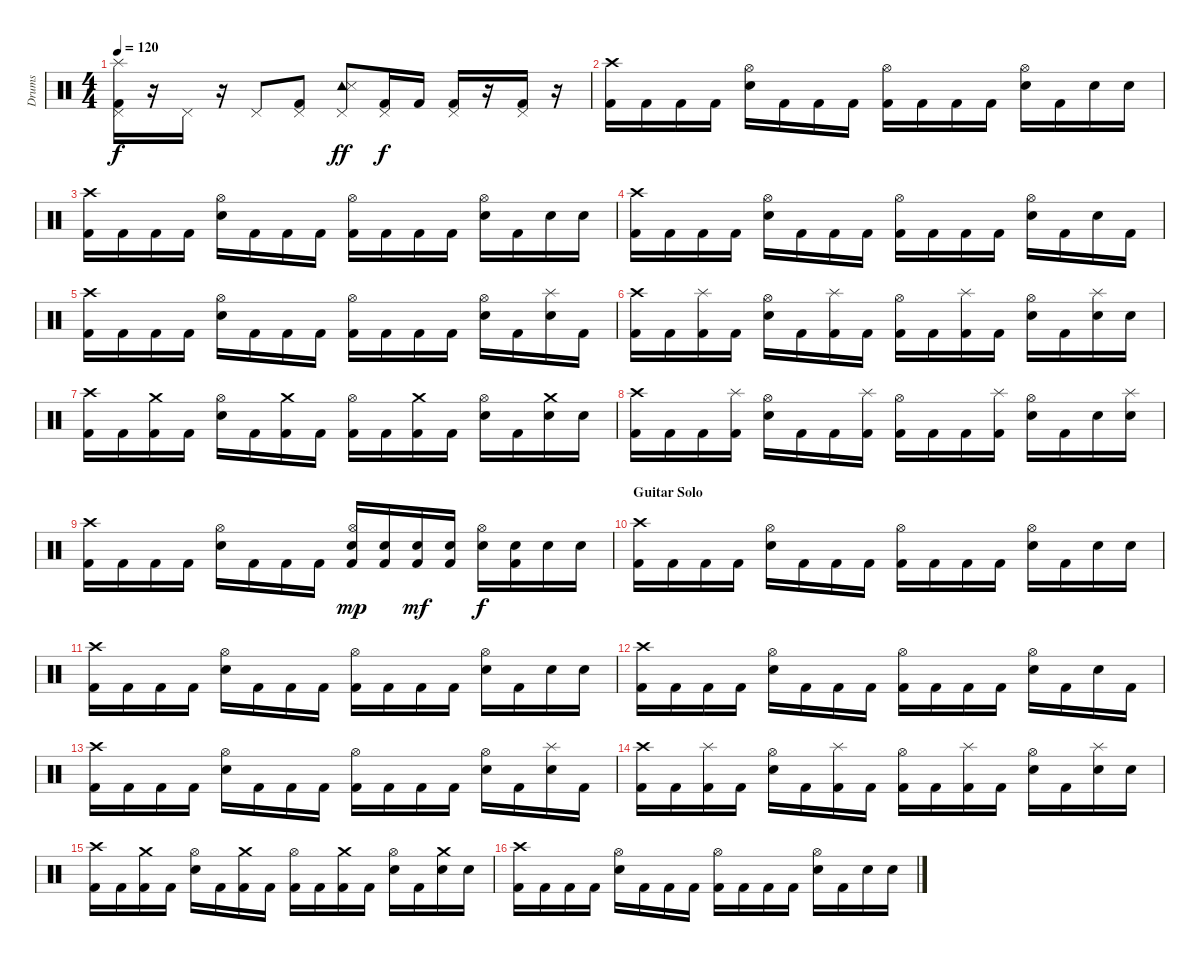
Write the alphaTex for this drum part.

\track ("Drums" "Drums") {instrument percussion}
\staff {score}
\articulation defaults
\ts (4 4)
\tempo 120
\clef neutral
\ks c
("Splash (hit)" "Pedal Hi-Hat (hit)" "Kick (hit) 2").16{dy f} r.16 "Pedal Hi-Hat (hit)".16 r.16 "Pedal Hi-Hat (hit)".8 ("Pedal Hi-Hat (hit)" "Kick (hit) 2").8 ("Pedal Hi-Hat (hit)" "Tambourine (hit)" "Snare (side stick) 3").8{dy ff} ("Pedal Hi-Hat (hit)" "Kick (hit) 2").16{dy f} "Kick (hit) 2".16 ("Pedal Hi-Hat (hit)" "Kick (hit) 2").16 r.16 ("Pedal Hi-Hat (hit)" "Kick (hit) 2").16 r.16 |
("Crash high (hit)" "Kick (hit) 2").16 "Kick (hit) 2".16 "Kick (hit) 2".16 "Kick (hit) 2".16 ("Hi-Hat (open)" "Electric Snare (hit)").16 "Kick (hit) 2".16 "Kick (hit) 2".16 "Kick (hit) 2".16 ("Hi-Hat (open)" "Kick (hit) 2").16 "Kick (hit) 2".16 "Kick (hit) 2".16 "Kick (hit) 2".16 ("Hi-Hat (open)" "Electric Snare (hit)").16 "Kick (hit) 2".16 "Electric Snare (hit)".16 "Electric Snare (hit)".16 |
("Crash high (hit)" "Kick (hit) 2").16 "Kick (hit) 2".16 "Kick (hit) 2".16 "Kick (hit) 2".16 ("Hi-Hat (open)" "Electric Snare (hit)").16 "Kick (hit) 2".16 "Kick (hit) 2".16 "Kick (hit) 2".16 ("Hi-Hat (open)" "Kick (hit) 2").16 "Kick (hit) 2".16 "Kick (hit) 2".16 "Kick (hit) 2".16 ("Hi-Hat (open)" "Electric Snare (hit)").16 "Kick (hit) 2".16 "Electric Snare (hit)".16 "Electric Snare (hit)".16 |
("Crash high (hit)" "Kick (hit) 2").16 "Kick (hit) 2".16 "Kick (hit) 2".16 "Kick (hit) 2".16 ("Hi-Hat (open)" "Electric Snare (hit)").16 "Kick (hit) 2".16 "Kick (hit) 2".16 "Kick (hit) 2".16 ("Hi-Hat (open)" "Kick (hit) 2").16 "Kick (hit) 2".16 "Kick (hit) 2".16 "Kick (hit) 2".16 ("Hi-Hat (open)" "Electric Snare (hit)").16 "Kick (hit) 2".16 "Electric Snare (hit)".16 "Kick (hit) 2".16 |
("Crash high (hit)" "Kick (hit) 2").16 "Kick (hit) 2".16 "Kick (hit) 2".16 "Kick (hit) 2".16 ("Hi-Hat (open)" "Electric Snare (hit)").16 "Kick (hit) 2".16 "Kick (hit) 2".16 "Kick (hit) 2".16 ("Hi-Hat (open)" "Kick (hit) 2").16 "Kick (hit) 2".16 "Kick (hit) 2".16 "Kick (hit) 2".16 ("Hi-Hat (open)" "Electric Snare (hit)").16 "Kick (hit) 2".16 ("Splash (hit)" "Electric Snare (hit)").16 "Kick (hit) 2".16 |
("Crash high (hit)" "Kick (hit) 2").16 "Kick (hit) 2".16 ("Splash (hit)" "Kick (hit) 2").16 "Kick (hit) 2".16 ("Hi-Hat (open)" "Electric Snare (hit)").16 "Kick (hit) 2".16 ("Splash (hit)" "Kick (hit) 2").16 "Kick (hit) 2".16 ("Hi-Hat (open)" "Kick (hit) 2").16 "Kick (hit) 2".16 ("Splash (hit)" "Kick (hit) 2").16 "Kick (hit) 2".16 ("Hi-Hat (open)" "Electric Snare (hit)").16 "Kick (hit) 2".16 ("Splash (hit)" "Electric Snare (hit)").16 "Electric Snare (hit)".16 |
("Crash high (hit)" "Kick (hit) 2").16 "Kick (hit) 2".16 ("Crash medium (hit)" "Kick (hit) 2").16 "Kick (hit) 2".16 ("Hi-Hat (open)" "Electric Snare (hit)").16 "Kick (hit) 2".16 ("Crash medium (hit)" "Kick (hit) 2").16 "Kick (hit) 2".16 ("Hi-Hat (open)" "Kick (hit) 2").16 "Kick (hit) 2".16 ("Crash medium (hit)" "Kick (hit) 2").16 "Kick (hit) 2".16 ("Hi-Hat (open)" "Electric Snare (hit)").16 "Kick (hit) 2".16 ("Crash medium (hit)" "Electric Snare (hit)").16 "Electric Snare (hit)".16 |
("Crash high (hit)" "Kick (hit) 2").16 "Kick (hit) 2".16 "Kick (hit) 2".16 ("Splash (hit)" "Kick (hit) 2").16 ("Hi-Hat (open)" "Electric Snare (hit)").16 "Kick (hit) 2".16 "Kick (hit) 2".16 ("Splash (hit)" "Kick (hit) 2").16 ("Hi-Hat (open)" "Kick (hit) 2").16 "Kick (hit) 2".16 "Kick (hit) 2".16 ("Splash (hit)" "Kick (hit) 2").16 ("Hi-Hat (open)" "Electric Snare (hit)").16 "Kick (hit) 2".16 "Electric Snare (hit)".16 ("Splash (hit)" "Electric Snare (hit)").16 |
("Crash high (hit)" "Kick (hit) 2").16 "Kick (hit) 2".16 "Kick (hit) 2".16 "Kick (hit) 2".16 ("Hi-Hat (open)" "Electric Snare (hit)").16 "Kick (hit) 2".16 "Kick (hit) 2".16 "Kick (hit) 2".16 ("Hi-Hat (open)" "Electric Snare (hit)" "Kick (hit) 2").16{dy mp} ("Electric Snare (hit)" "Kick (hit) 2").16 ("Electric Snare (hit)" "Kick (hit) 2").16{dy mf} ("Electric Snare (hit)" "Kick (hit) 2").16 ("Hi-Hat (open)" "Electric Snare (hit)").16{dy f} ("Electric Snare (hit)" "Kick (hit) 2").16 "Electric Snare (hit)".16 "Electric Snare (hit)".16 |
\section ("" "Guitar Solo")
("Crash high (hit)" "Kick (hit) 2").16 "Kick (hit) 2".16 "Kick (hit) 2".16 "Kick (hit) 2".16 ("Hi-Hat (open)" "Electric Snare (hit)").16 "Kick (hit) 2".16 "Kick (hit) 2".16 "Kick (hit) 2".16 ("Hi-Hat (open)" "Kick (hit) 2").16 "Kick (hit) 2".16 "Kick (hit) 2".16 "Kick (hit) 2".16 ("Hi-Hat (open)" "Electric Snare (hit)").16 "Kick (hit) 2".16 "Electric Snare (hit)".16 "Electric Snare (hit)".16 |
("Crash high (hit)" "Kick (hit) 2").16 "Kick (hit) 2".16 "Kick (hit) 2".16 "Kick (hit) 2".16 ("Hi-Hat (open)" "Electric Snare (hit)").16 "Kick (hit) 2".16 "Kick (hit) 2".16 "Kick (hit) 2".16 ("Hi-Hat (open)" "Kick (hit) 2").16 "Kick (hit) 2".16 "Kick (hit) 2".16 "Kick (hit) 2".16 ("Hi-Hat (open)" "Electric Snare (hit)").16 "Kick (hit) 2".16 "Electric Snare (hit)".16 "Electric Snare (hit)".16 |
("Crash high (hit)" "Kick (hit) 2").16 "Kick (hit) 2".16 "Kick (hit) 2".16 "Kick (hit) 2".16 ("Hi-Hat (open)" "Electric Snare (hit)").16 "Kick (hit) 2".16 "Kick (hit) 2".16 "Kick (hit) 2".16 ("Hi-Hat (open)" "Kick (hit) 2").16 "Kick (hit) 2".16 "Kick (hit) 2".16 "Kick (hit) 2".16 ("Hi-Hat (open)" "Electric Snare (hit)").16 "Kick (hit) 2".16 "Electric Snare (hit)".16 "Kick (hit) 2".16 |
("Crash high (hit)" "Kick (hit) 2").16 "Kick (hit) 2".16 "Kick (hit) 2".16 "Kick (hit) 2".16 ("Hi-Hat (open)" "Electric Snare (hit)").16 "Kick (hit) 2".16 "Kick (hit) 2".16 "Kick (hit) 2".16 ("Hi-Hat (open)" "Kick (hit) 2").16 "Kick (hit) 2".16 "Kick (hit) 2".16 "Kick (hit) 2".16 ("Hi-Hat (open)" "Electric Snare (hit)").16 "Kick (hit) 2".16 ("Splash (hit)" "Electric Snare (hit)").16 "Kick (hit) 2".16 |
("Crash high (hit)" "Kick (hit) 2").16 "Kick (hit) 2".16 ("Splash (hit)" "Kick (hit) 2").16 "Kick (hit) 2".16 ("Hi-Hat (open)" "Electric Snare (hit)").16 "Kick (hit) 2".16 ("Splash (hit)" "Kick (hit) 2").16 "Kick (hit) 2".16 ("Hi-Hat (open)" "Kick (hit) 2").16 "Kick (hit) 2".16 ("Splash (hit)" "Kick (hit) 2").16 "Kick (hit) 2".16 ("Hi-Hat (open)" "Electric Snare (hit)").16 "Kick (hit) 2".16 ("Splash (hit)" "Electric Snare (hit)").16 "Electric Snare (hit)".16 |
("Crash high (hit)" "Kick (hit) 2").16 "Kick (hit) 2".16 ("Crash medium (hit)" "Kick (hit) 2").16 "Kick (hit) 2".16 ("Hi-Hat (open)" "Electric Snare (hit)").16 "Kick (hit) 2".16 ("Crash medium (hit)" "Kick (hit) 2").16 "Kick (hit) 2".16 ("Hi-Hat (open)" "Kick (hit) 2").16 "Kick (hit) 2".16 ("Crash medium (hit)" "Kick (hit) 2").16 "Kick (hit) 2".16 ("Hi-Hat (open)" "Electric Snare (hit)").16 "Kick (hit) 2".16 ("Crash medium (hit)" "Electric Snare (hit)").16 "Electric Snare (hit)".16 |
("Crash high (hit)" "Kick (hit) 2").16 "Kick (hit) 2".16 "Kick (hit) 2".16 "Kick (hit) 2".16 ("Hi-Hat (open)" "Electric Snare (hit)").16 "Kick (hit) 2".16 "Kick (hit) 2".16 "Kick (hit) 2".16 ("Hi-Hat (open)" "Kick (hit) 2").16 "Kick (hit) 2".16 "Kick (hit) 2".16 "Kick (hit) 2".16 ("Hi-Hat (open)" "Electric Snare (hit)").16 "Kick (hit) 2".16 "Electric Snare (hit)".16 "Electric Snare (hit)".16
